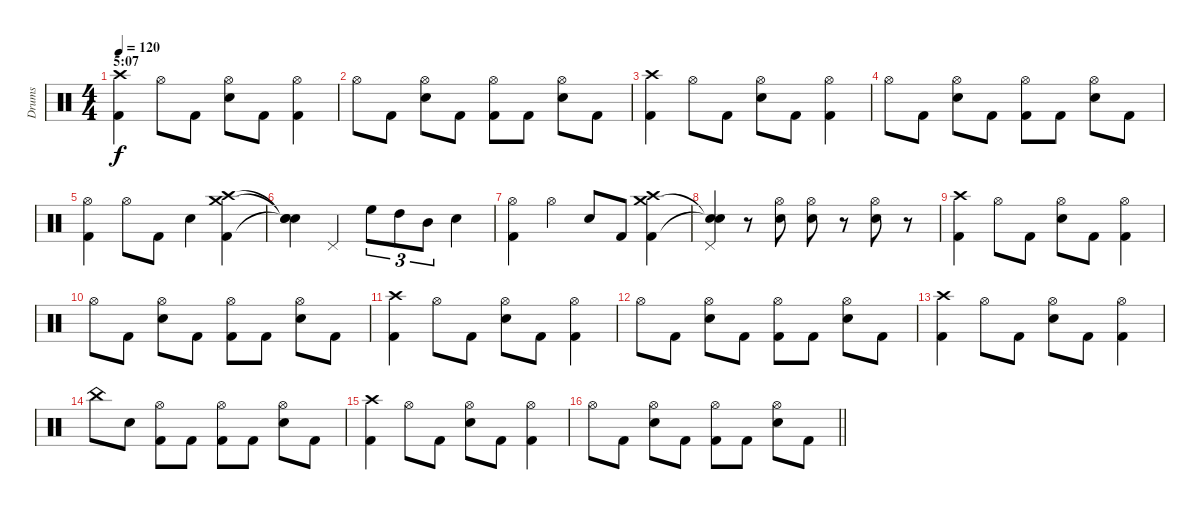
\track ("Drums" "Drums") {instrument percussion}
\staff {score}
\articulation defaults
\ts (4 4)
\section ("" "5:07")
\tempo 120
\clef neutral
\ks c
("Crash high (hit)" "Kick (hit) 2").4{dy f} "Hi-Hat (open)".8 "Kick (hit) 2".8 ("Hi-Hat (open)" "Snare (hit) 2").8 "Kick (hit) 2".8 ("Hi-Hat (open)" "Kick (hit) 2").4 |
"Hi-Hat (open)".8 "Kick (hit) 2".8 ("Hi-Hat (open)" "Snare (hit) 2").8 "Kick (hit) 2".8 ("Hi-Hat (open)" "Kick (hit) 2").8 "Kick (hit) 2".8 ("Hi-Hat (open)" "Snare (hit) 2").8 "Kick (hit) 2".8 |
("Crash high (hit)" "Kick (hit) 2").4 "Hi-Hat (open)".8 "Kick (hit) 2".8 ("Hi-Hat (open)" "Snare (hit) 2").8 "Kick (hit) 2".8 ("Hi-Hat (open)" "Kick (hit) 2").4 |
"Hi-Hat (open)".8 "Kick (hit) 2".8 ("Hi-Hat (open)" "Snare (hit) 2").8 "Kick (hit) 2".8 ("Hi-Hat (open)" "Kick (hit) 2").8 "Kick (hit) 2".8 ("Hi-Hat (open)" "Snare (hit) 2").8 "Kick (hit) 2".8 |
("Hi-Hat (open)" "Kick (hit) 2").4 "Hi-Hat (open)".8 "Kick (hit) 2".8 "Snare (hit) 2".4 ("Crash medium (hit)" "Crash high (hit)" "Kick (hit) 2").4 |
("Snare (hit)"{t} "Snare (hit)"{t} "Snare (hit)"{t}).4 "Pedal Hi-Hat (hit)".4 "High Floor Tom (hit)".8{tu (3 2)} "High Tom (hit)".8{tu (3 2)} "Mid Tom (hit)".8{tu (3 2)} "Snare (hit) 2".4 |
("Hi-Hat (open)" "Kick (hit) 2").4 "Hi-Hat (open)".4 "Snare (hit) 2".8 "Kick (hit) 2".8 ("Crash medium (hit)" "Crash high (hit)" "Kick (hit) 2").4 |
("Snare (hit)"{t} "Pedal Hi-Hat (hit)" "Snare (hit)"{t}).4 r.8 ("Hi-Hat (open)" "Snare (hit) 2").8 ("Hi-Hat (open)" "Snare (hit) 2").8 r.8 ("Hi-Hat (open)" "Snare (hit) 2").8 r.8 |
("Crash high (hit)" "Kick (hit) 2").4 "Hi-Hat (open)".8 "Kick (hit) 2".8 ("Hi-Hat (open)" "Snare (hit) 2").8 "Kick (hit) 2".8 ("Hi-Hat (open)" "Kick (hit) 2").4 |
"Hi-Hat (open)".8 "Kick (hit) 2".8 ("Hi-Hat (open)" "Snare (hit) 2").8 "Kick (hit) 2".8 ("Hi-Hat (open)" "Kick (hit) 2").8 "Kick (hit) 2".8 ("Hi-Hat (open)" "Snare (hit) 2").8 "Kick (hit) 2".8 |
("Crash high (hit)" "Kick (hit) 2").4 "Hi-Hat (open)".8 "Kick (hit) 2".8 ("Hi-Hat (open)" "Snare (hit) 2").8 "Kick (hit) 2".8 ("Hi-Hat (open)" "Kick (hit) 2").4 |
"Hi-Hat (open)".8 "Kick (hit) 2".8 ("Hi-Hat (open)" "Snare (hit) 2").8 "Kick (hit) 2".8 ("Hi-Hat (open)" "Kick (hit) 2").8 "Kick (hit) 2".8 ("Hi-Hat (open)" "Snare (hit) 2").8 "Kick (hit) 2".8 |
("Crash high (hit)" "Kick (hit) 2").4 "Hi-Hat (open)".8 "Kick (hit) 2".8 ("Hi-Hat (open)" "Snare (hit) 2").8 "Kick (hit) 2".8 ("Hi-Hat (open)" "Kick (hit) 2").4 |
"China (hit)".8 "Snare (hit) 2".8 ("Hi-Hat (open)" "Kick (hit) 2").8 "Kick (hit) 2".8 ("Hi-Hat (open)" "Kick (hit) 2").8 "Kick (hit) 2".8 ("Hi-Hat (open)" "Snare (hit) 2").8 "Kick (hit) 2".8 |
("Crash high (hit)" "Kick (hit) 2").4 "Hi-Hat (open)".8 "Kick (hit) 2".8 ("Hi-Hat (open)" "Snare (hit) 2").8 "Kick (hit) 2".8 ("Hi-Hat (open)" "Kick (hit) 2").4 |
\barLineRight lightlight "Hi-Hat (open)".8 "Kick (hit) 2".8
("Hi-Hat (open)" "Snare (hit) 2").8 "Kick (hit) 2".8 ("Hi-Hat (open)" "Kick (hit) 2").8 "Kick (hit) 2".8 ("Hi-Hat (open)" "Snare (hit) 2").8 "Kick (hit) 2".8
